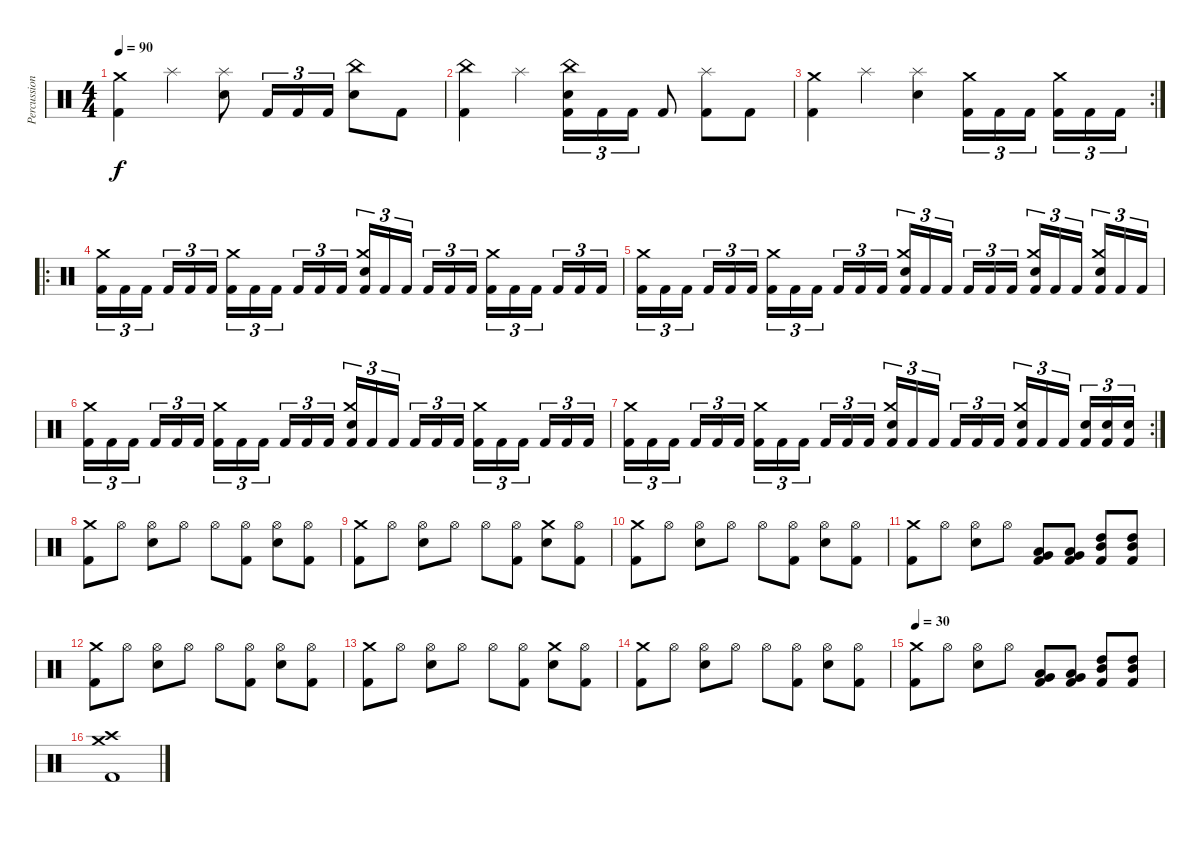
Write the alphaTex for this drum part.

\track ("Percussion" "Percussion") {instrument percussion}
\staff {score}
\articulation defaults
\ts (4 4)
\tempo 90
\clef neutral
\ks c
("Kick (hit) 2" "Crash medium (hit)").4{dy f} "Splash (hit)".4 ("Electric Snare (hit)" "Splash (hit)").8 "Kick (hit) 2".16{tu (3 2)} "Kick (hit) 2".16{tu (3 2)} "Kick (hit) 2".16{tu (3 2)} ("Electric Snare (hit)" "China (hit)").8 "Kick (hit) 2".8 |
("Kick (hit) 2" "China (hit)").4 "Splash (hit)".4 ("Kick (hit) 2" "Electric Snare (hit)" "China (hit)").16{tu (3 2)} "Kick (hit) 2".16{tu (3 2)} "Kick (hit) 2".16{tu (3 2)} "Kick (hit) 2".8 ("Kick (hit) 2" "Splash (hit)").8 "Kick (hit) 2".8 |
\rc 2
("Kick (hit) 2" "Crash medium (hit)").4 "Splash (hit)".4 ("Electric Snare (hit)" "Splash (hit)").4 ("Kick (hit) 2" "Crash medium (hit)").16{tu (3 2)} "Kick (hit) 2".16{tu (3 2)} "Kick (hit) 2".16{tu (3 2)} ("Kick (hit) 2" "Crash medium (hit)").16{tu (3 2)} "Kick (hit) 2".16{tu (3 2)} "Kick (hit) 2".16{tu (3 2)} |
\ro
("Kick (hit) 2" "Crash medium (hit)").16{tu (3 2)} "Kick (hit) 2".16{tu (3 2)} "Kick (hit) 2".16{tu (3 2)} "Kick (hit) 2".16{tu (3 2)} "Kick (hit) 2".16{tu (3 2)} "Kick (hit) 2".16{tu (3 2)} ("Kick (hit) 2" "Crash medium (hit)").16{tu (3 2)} "Kick (hit) 2".16{tu (3 2)} "Kick (hit) 2".16{tu (3 2)} "Kick (hit) 2".16{tu (3 2)} "Kick (hit) 2".16{tu (3 2)} "Kick (hit) 2".16{tu (3 2)} ("Kick (hit) 2" "Electric Snare (hit)" "Crash medium (hit)").16{tu (3 2)} "Kick (hit) 2".16{tu (3 2)} "Kick (hit) 2".16{tu (3 2)} "Kick (hit) 2".16{tu (3 2)} "Kick (hit) 2".16{tu (3 2)} "Kick (hit) 2".16{tu (3 2)} ("Kick (hit) 2" "Crash medium (hit)").16{tu (3 2)} "Kick (hit) 2".16{tu (3 2)} "Kick (hit) 2".16{tu (3 2)} "Kick (hit) 2".16{tu (3 2)} "Kick (hit) 2".16{tu (3 2)} "Kick (hit) 2".16{tu (3 2)} |
("Kick (hit) 2" "Crash medium (hit)").16{tu (3 2)} "Kick (hit) 2".16{tu (3 2)} "Kick (hit) 2".16{tu (3 2)} "Kick (hit) 2".16{tu (3 2)} "Kick (hit) 2".16{tu (3 2)} "Kick (hit) 2".16{tu (3 2)} ("Kick (hit) 2" "Crash medium (hit)").16{tu (3 2)} "Kick (hit) 2".16{tu (3 2)} "Kick (hit) 2".16{tu (3 2)} "Kick (hit) 2".16{tu (3 2)} "Kick (hit) 2".16{tu (3 2)} "Kick (hit) 2".16{tu (3 2)} ("Kick (hit) 2" "Electric Snare (hit)" "Crash medium (hit)").16{tu (3 2)} "Kick (hit) 2".16{tu (3 2)} "Kick (hit) 2".16{tu (3 2)} "Kick (hit) 2".16{tu (3 2)} "Kick (hit) 2".16{tu (3 2)} "Kick (hit) 2".16{tu (3 2)} ("Kick (hit) 2" "Electric Snare (hit)" "Crash medium (hit)").16{tu (3 2)} "Kick (hit) 2".16{tu (3 2)} "Kick (hit) 2".16{tu (3 2)} ("Kick (hit) 2" "Electric Snare (hit)" "Crash medium (hit)").16{tu (3 2)} "Kick (hit) 2".16{tu (3 2)} "Kick (hit) 2".16{tu (3 2)} |
("Kick (hit) 2" "Crash medium (hit)").16{tu (3 2)} "Kick (hit) 2".16{tu (3 2)} "Kick (hit) 2".16{tu (3 2)} "Kick (hit) 2".16{tu (3 2)} "Kick (hit) 2".16{tu (3 2)} "Kick (hit) 2".16{tu (3 2)} ("Kick (hit) 2" "Crash medium (hit)").16{tu (3 2)} "Kick (hit) 2".16{tu (3 2)} "Kick (hit) 2".16{tu (3 2)} "Kick (hit) 2".16{tu (3 2)} "Kick (hit) 2".16{tu (3 2)} "Kick (hit) 2".16{tu (3 2)} ("Kick (hit) 2" "Electric Snare (hit)" "Crash medium (hit)").16{tu (3 2)} "Kick (hit) 2".16{tu (3 2)} "Kick (hit) 2".16{tu (3 2)} "Kick (hit) 2".16{tu (3 2)} "Kick (hit) 2".16{tu (3 2)} "Kick (hit) 2".16{tu (3 2)} ("Kick (hit) 2" "Crash medium (hit)").16{tu (3 2)} "Kick (hit) 2".16{tu (3 2)} "Kick (hit) 2".16{tu (3 2)} "Kick (hit) 2".16{tu (3 2)} "Kick (hit) 2".16{tu (3 2)} "Kick (hit) 2".16{tu (3 2)} |
\rc 2
("Kick (hit) 2" "Crash medium (hit)").16{tu (3 2)} "Kick (hit) 2".16{tu (3 2)} "Kick (hit) 2".16{tu (3 2)} "Kick (hit) 2".16{tu (3 2)} "Kick (hit) 2".16{tu (3 2)} "Kick (hit) 2".16{tu (3 2)} ("Kick (hit) 2" "Crash medium (hit)").16{tu (3 2)} "Kick (hit) 2".16{tu (3 2)} "Kick (hit) 2".16{tu (3 2)} "Kick (hit) 2".16{tu (3 2)} "Kick (hit) 2".16{tu (3 2)} "Kick (hit) 2".16{tu (3 2)} ("Kick (hit) 2" "Electric Snare (hit)" "Crash medium (hit)").16{tu (3 2)} "Kick (hit) 2".16{tu (3 2)} "Kick (hit) 2".16{tu (3 2)} "Kick (hit) 2".16{tu (3 2)} "Kick (hit) 2".16{tu (3 2)} "Kick (hit) 2".16{tu (3 2)} ("Kick (hit) 2" "Electric Snare (hit)" "Crash medium (hit)").16{tu (3 2)} "Kick (hit) 2".16{tu (3 2)} "Kick (hit) 2".16{tu (3 2)} ("Kick (hit) 2" "Electric Snare (hit)").16{tu (3 2)} ("Kick (hit) 2" "Electric Snare (hit)").16{tu (3 2)} ("Kick (hit) 2" "Electric Snare (hit)").16{tu (3 2)} |
("Kick (hit) 2" "Crash medium (hit)").8 "Hi-Hat (open)".8 ("Electric Snare (hit)" "Hi-Hat (open)").8 "Hi-Hat (open)".8 "Hi-Hat (open)".8 ("Kick (hit) 2" "Hi-Hat (open)").8 ("Electric Snare (hit)" "Hi-Hat (open)").8 ("Kick (hit) 2" "Hi-Hat (open)").8 |
("Kick (hit) 2" "Crash medium (hit)").8 "Hi-Hat (open)".8 ("Electric Snare (hit)" "Hi-Hat (open)").8 "Hi-Hat (open)".8 "Hi-Hat (open)".8 ("Kick (hit) 2" "Hi-Hat (open)").8 ("Electric Snare (hit)" "Crash medium (hit)").8 ("Kick (hit) 2" "Hi-Hat (open)").8 |
("Kick (hit) 2" "Crash medium (hit)").8 "Hi-Hat (open)".8 ("Electric Snare (hit)" "Hi-Hat (open)").8 "Hi-Hat (open)".8 "Hi-Hat (open)".8 ("Kick (hit) 2" "Hi-Hat (open)").8 ("Electric Snare (hit)" "Hi-Hat (open)").8 ("Kick (hit) 2" "Hi-Hat (open)").8 |
("Kick (hit) 2" "Crash medium (hit)").8 "Hi-Hat (open)".8 ("Electric Snare (hit)" "Hi-Hat (open)").8 "Hi-Hat (open)".8 ("Kick (hit) 2" "Low Tom (hit)" "Very Low Tom (hit)").8 ("Kick (hit) 2" "Low Tom (hit)" "Very Low Tom (hit)").8 ("Kick (hit) 2" "High Tom (hit)" "Mid Tom (hit)").8 ("Kick (hit) 2" "High Tom (hit)" "Mid Tom (hit)").8 |
("Kick (hit) 2" "Crash medium (hit)").8 "Hi-Hat (open)".8 ("Electric Snare (hit)" "Hi-Hat (open)").8 "Hi-Hat (open)".8 "Hi-Hat (open)".8 ("Kick (hit) 2" "Hi-Hat (open)").8 ("Electric Snare (hit)" "Hi-Hat (open)").8 ("Kick (hit) 2" "Hi-Hat (open)").8 |
("Kick (hit) 2" "Crash medium (hit)").8 "Hi-Hat (open)".8 ("Electric Snare (hit)" "Hi-Hat (open)").8 "Hi-Hat (open)".8 "Hi-Hat (open)".8 ("Kick (hit) 2" "Hi-Hat (open)").8 ("Electric Snare (hit)" "Crash medium (hit)").8 ("Kick (hit) 2" "Hi-Hat (open)").8 |
("Kick (hit) 2" "Crash medium (hit)").8 "Hi-Hat (open)".8 ("Electric Snare (hit)" "Hi-Hat (open)").8 "Hi-Hat (open)".8 "Hi-Hat (open)".8 ("Kick (hit) 2" "Hi-Hat (open)").8 ("Electric Snare (hit)" "Hi-Hat (open)").8 ("Kick (hit) 2" "Hi-Hat (open)").8 |
\tempo 30
("Kick (hit) 2" "Crash medium (hit)").8 "Hi-Hat (open)".8 ("Electric Snare (hit)" "Hi-Hat (open)").8 "Hi-Hat (open)".8 ("Kick (hit) 2" "Low Tom (hit)" "Very Low Tom (hit)").8 ("Kick (hit) 2" "Low Tom (hit)" "Very Low Tom (hit)").8 ("Kick (hit) 2" "High Tom (hit)" "Mid Tom (hit)").8 ("Kick (hit) 2" "High Tom (hit)" "Mid Tom (hit)").8 |
("Kick (hit) 2" "Crash high (hit)" "Crash medium (hit)").1
